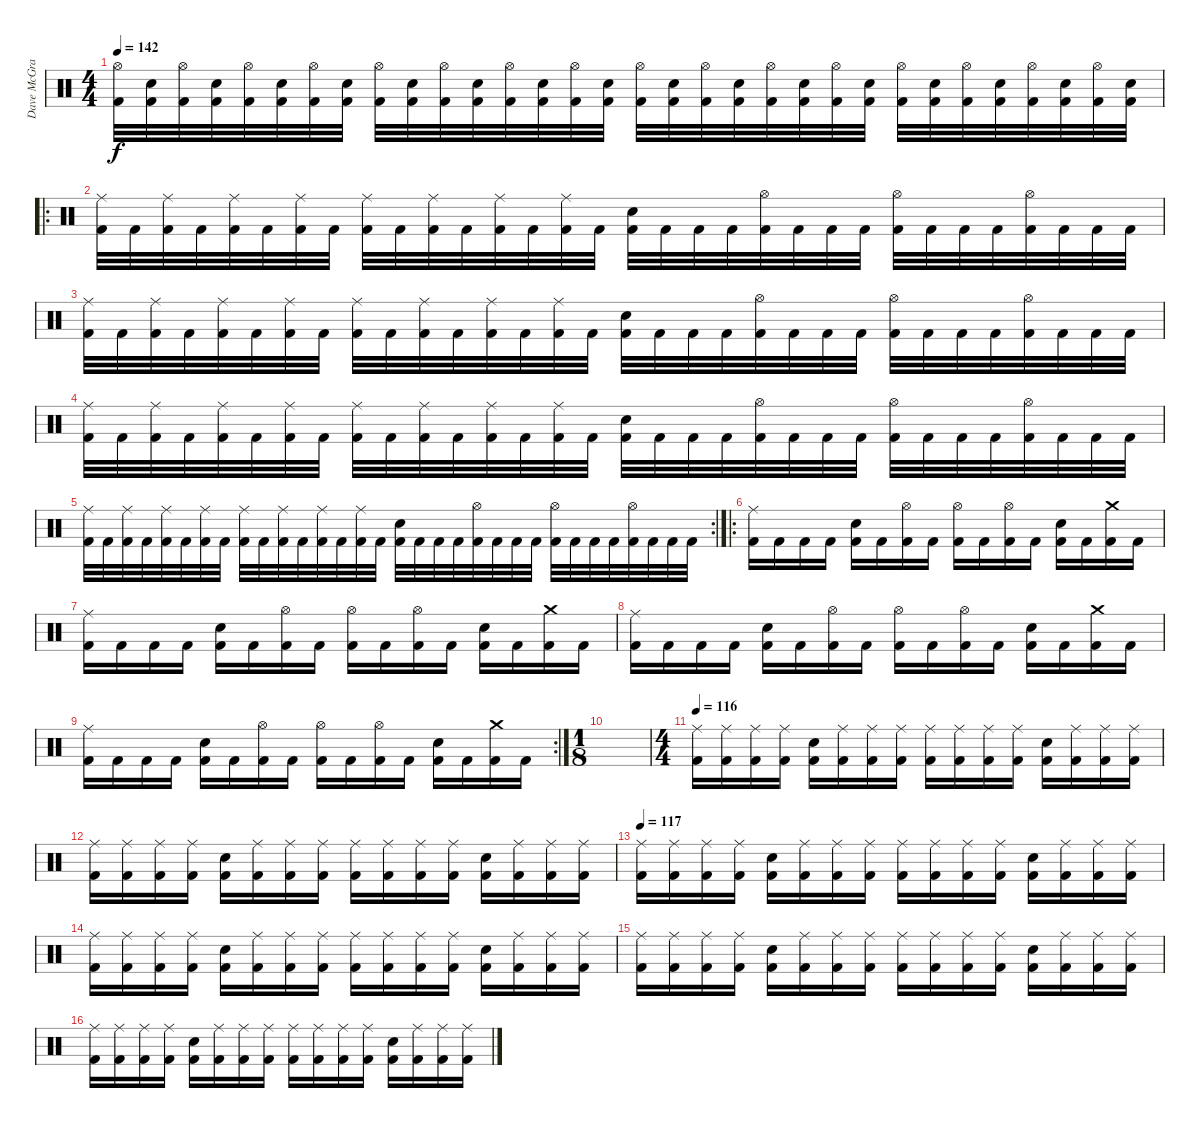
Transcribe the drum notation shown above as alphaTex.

\track ("Dave McGraw" "Dave McGra") {instrument percussion}
\staff {score}
\articulation defaults
\ts (4 4)
\tempo 142
\clef neutral
\ks c
("Hi-Hat (open)" "Kick (hit) 2").32{dy f} ("Electric Snare (hit)" "Kick (hit) 2").32 ("Hi-Hat (open)" "Kick (hit) 2").32 ("Electric Snare (hit)" "Kick (hit) 2").32 ("Hi-Hat (open)" "Kick (hit) 2").32 ("Electric Snare (hit)" "Kick (hit) 2").32 ("Hi-Hat (open)" "Kick (hit) 2").32 ("Electric Snare (hit)" "Kick (hit) 2").32 ("Hi-Hat (open)" "Kick (hit) 2").32 ("Electric Snare (hit)" "Kick (hit) 2").32 ("Hi-Hat (open)" "Kick (hit) 2").32 ("Electric Snare (hit)" "Kick (hit) 2").32 ("Hi-Hat (open)" "Kick (hit) 2").32 ("Electric Snare (hit)" "Kick (hit) 2").32 ("Hi-Hat (open)" "Kick (hit) 2").32 ("Electric Snare (hit)" "Kick (hit) 2").32 ("Hi-Hat (open)" "Kick (hit) 2").32 ("Electric Snare (hit)" "Kick (hit) 2").32 ("Hi-Hat (open)" "Kick (hit) 2").32 ("Electric Snare (hit)" "Kick (hit) 2").32 ("Hi-Hat (open)" "Kick (hit) 2").32 ("Electric Snare (hit)" "Kick (hit) 2").32 ("Hi-Hat (open)" "Kick (hit) 2").32 ("Electric Snare (hit)" "Kick (hit) 2").32 ("Hi-Hat (open)" "Kick (hit) 2").32 ("Electric Snare (hit)" "Kick (hit) 2").32 ("Hi-Hat (open)" "Kick (hit) 2").32 ("Electric Snare (hit)" "Kick (hit) 2").32 ("Hi-Hat (open)" "Kick (hit) 2").32 ("Electric Snare (hit)" "Kick (hit) 2").32 ("Hi-Hat (open)" "Kick (hit) 2").32 ("Electric Snare (hit)" "Kick (hit) 2").32 |
\ro
("Ride (middle)" "Kick (hit) 2").32 "Kick (hit) 2".32 ("Ride (middle)" "Kick (hit) 2").32 "Kick (hit) 2".32 ("Ride (middle)" "Kick (hit) 2").32 "Kick (hit) 2".32 ("Ride (middle)" "Kick (hit) 2").32 "Kick (hit) 2".32 ("Ride (middle)" "Kick (hit) 2").32 "Kick (hit) 2".32 ("Ride (middle)" "Kick (hit) 2").32 "Kick (hit) 2".32 ("Ride (middle)" "Kick (hit) 2").32 "Kick (hit) 2".32 ("Ride (middle)" "Kick (hit) 2").32 "Kick (hit) 2".32 ("Electric Snare (hit)" "Kick (hit) 2").32 "Kick (hit) 2".32 "Kick (hit) 2".32 "Kick (hit) 2".32 ("Hi-Hat (open)" "Kick (hit) 2").32 "Kick (hit) 2".32 "Kick (hit) 2".32 "Kick (hit) 2".32 ("Hi-Hat (open)" "Kick (hit) 2").32 "Kick (hit) 2".32 "Kick (hit) 2".32 "Kick (hit) 2".32 ("Hi-Hat (open)" "Kick (hit) 2").32 "Kick (hit) 2".32 "Kick (hit) 2".32 "Kick (hit) 2".32 |
("Ride (middle)" "Kick (hit) 2").32 "Kick (hit) 2".32 ("Ride (middle)" "Kick (hit) 2").32 "Kick (hit) 2".32 ("Ride (middle)" "Kick (hit) 2").32 "Kick (hit) 2".32 ("Ride (middle)" "Kick (hit) 2").32 "Kick (hit) 2".32 ("Ride (middle)" "Kick (hit) 2").32 "Kick (hit) 2".32 ("Ride (middle)" "Kick (hit) 2").32 "Kick (hit) 2".32 ("Ride (middle)" "Kick (hit) 2").32 "Kick (hit) 2".32 ("Ride (middle)" "Kick (hit) 2").32 "Kick (hit) 2".32 ("Electric Snare (hit)" "Kick (hit) 2").32 "Kick (hit) 2".32 "Kick (hit) 2".32 "Kick (hit) 2".32 ("Hi-Hat (open)" "Kick (hit) 2").32 "Kick (hit) 2".32 "Kick (hit) 2".32 "Kick (hit) 2".32 ("Hi-Hat (open)" "Kick (hit) 2").32 "Kick (hit) 2".32 "Kick (hit) 2".32 "Kick (hit) 2".32 ("Hi-Hat (open)" "Kick (hit) 2").32 "Kick (hit) 2".32 "Kick (hit) 2".32 "Kick (hit) 2".32 |
("Ride (middle)" "Kick (hit) 2").32 "Kick (hit) 2".32 ("Ride (middle)" "Kick (hit) 2").32 "Kick (hit) 2".32 ("Ride (middle)" "Kick (hit) 2").32 "Kick (hit) 2".32 ("Ride (middle)" "Kick (hit) 2").32 "Kick (hit) 2".32 ("Ride (middle)" "Kick (hit) 2").32 "Kick (hit) 2".32 ("Ride (middle)" "Kick (hit) 2").32 "Kick (hit) 2".32 ("Ride (middle)" "Kick (hit) 2").32 "Kick (hit) 2".32 ("Ride (middle)" "Kick (hit) 2").32 "Kick (hit) 2".32 ("Electric Snare (hit)" "Kick (hit) 2").32 "Kick (hit) 2".32 "Kick (hit) 2".32 "Kick (hit) 2".32 ("Hi-Hat (open)" "Kick (hit) 2").32 "Kick (hit) 2".32 "Kick (hit) 2".32 "Kick (hit) 2".32 ("Hi-Hat (open)" "Kick (hit) 2").32 "Kick (hit) 2".32 "Kick (hit) 2".32 "Kick (hit) 2".32 ("Hi-Hat (open)" "Kick (hit) 2").32 "Kick (hit) 2".32 "Kick (hit) 2".32 "Kick (hit) 2".32 |
\rc 2
("Ride (middle)" "Kick (hit) 2").32 "Kick (hit) 2".32 ("Ride (middle)" "Kick (hit) 2").32 "Kick (hit) 2".32 ("Ride (middle)" "Kick (hit) 2").32 "Kick (hit) 2".32 ("Ride (middle)" "Kick (hit) 2").32 "Kick (hit) 2".32 ("Ride (middle)" "Kick (hit) 2").32 "Kick (hit) 2".32 ("Ride (middle)" "Kick (hit) 2").32 "Kick (hit) 2".32 ("Ride (middle)" "Kick (hit) 2").32 "Kick (hit) 2".32 ("Ride (middle)" "Kick (hit) 2").32 "Kick (hit) 2".32 ("Electric Snare (hit)" "Kick (hit) 2").32 "Kick (hit) 2".32 "Kick (hit) 2".32 "Kick (hit) 2".32 ("Hi-Hat (open)" "Kick (hit) 2").32 "Kick (hit) 2".32 "Kick (hit) 2".32 "Kick (hit) 2".32 ("Hi-Hat (open)" "Kick (hit) 2").32 "Kick (hit) 2".32 "Kick (hit) 2".32 "Kick (hit) 2".32 ("Hi-Hat (open)" "Kick (hit) 2").32 "Kick (hit) 2".32 "Kick (hit) 2".32 "Kick (hit) 2".32 |
\ro
("Ride (middle)" "Kick (hit) 2").16 "Kick (hit) 2".16 "Kick (hit) 2".16 "Kick (hit) 2".16 ("Electric Snare (hit)" "Kick (hit) 2").16 "Kick (hit) 2".16 ("Hi-Hat (open)" "Kick (hit) 2").16 "Kick (hit) 2".16 ("Hi-Hat (open)" "Kick (hit) 2").16 "Kick (hit) 2".16 ("Hi-Hat (open)" "Kick (hit) 2").16 "Kick (hit) 2".16 ("Electric Snare (hit)" "Kick (hit) 2").16 "Kick (hit) 2".16 ("Crash medium (hit)" "Kick (hit) 2").16 "Kick (hit) 2".16 |
("Ride (middle)" "Kick (hit) 2").16 "Kick (hit) 2".16 "Kick (hit) 2".16 "Kick (hit) 2".16 ("Electric Snare (hit)" "Kick (hit) 2").16 "Kick (hit) 2".16 ("Hi-Hat (open)" "Kick (hit) 2").16 "Kick (hit) 2".16 ("Hi-Hat (open)" "Kick (hit) 2").16 "Kick (hit) 2".16 ("Hi-Hat (open)" "Kick (hit) 2").16 "Kick (hit) 2".16 ("Electric Snare (hit)" "Kick (hit) 2").16 "Kick (hit) 2".16 ("Crash medium (hit)" "Kick (hit) 2").16 "Kick (hit) 2".16 |
("Ride (middle)" "Kick (hit) 2").16 "Kick (hit) 2".16 "Kick (hit) 2".16 "Kick (hit) 2".16 ("Electric Snare (hit)" "Kick (hit) 2").16 "Kick (hit) 2".16 ("Hi-Hat (open)" "Kick (hit) 2").16 "Kick (hit) 2".16 ("Hi-Hat (open)" "Kick (hit) 2").16 "Kick (hit) 2".16 ("Hi-Hat (open)" "Kick (hit) 2").16 "Kick (hit) 2".16 ("Electric Snare (hit)" "Kick (hit) 2").16 "Kick (hit) 2".16 ("Crash medium (hit)" "Kick (hit) 2").16 "Kick (hit) 2".16 |
\rc 2
("Ride (middle)" "Kick (hit) 2").16 "Kick (hit) 2".16 "Kick (hit) 2".16 "Kick (hit) 2".16 ("Electric Snare (hit)" "Kick (hit) 2").16 "Kick (hit) 2".16 ("Hi-Hat (open)" "Kick (hit) 2").16 "Kick (hit) 2".16 ("Hi-Hat (open)" "Kick (hit) 2").16 "Kick (hit) 2".16 ("Hi-Hat (open)" "Kick (hit) 2").16 "Kick (hit) 2".16 ("Electric Snare (hit)" "Kick (hit) 2").16 "Kick (hit) 2".16 ("Crash medium (hit)" "Kick (hit) 2").16 "Kick (hit) 2".16 |
\ts (1 8)
|
\ts (4 4)
\tempo 116
("Ride (middle)" "Kick (hit) 2").16 ("Ride (middle)" "Kick (hit) 2").16 ("Ride (middle)" "Kick (hit) 2").16 ("Ride (middle)" "Kick (hit) 2").16 ("Electric Snare (hit)" "Kick (hit) 2").16 ("Ride (middle)" "Kick (hit) 2").16 ("Ride (middle)" "Kick (hit) 2").16 ("Ride (middle)" "Kick (hit) 2").16 ("Ride (middle)" "Kick (hit) 2").16 ("Ride (middle)" "Kick (hit) 2").16 ("Ride (middle)" "Kick (hit) 2").16 ("Ride (middle)" "Kick (hit) 2").16 ("Electric Snare (hit)" "Kick (hit) 2").16 ("Ride (middle)" "Kick (hit) 2").16 ("Ride (middle)" "Kick (hit) 2").16 ("Ride (middle)" "Kick (hit) 2").16 |
("Ride (middle)" "Kick (hit) 2").16 ("Ride (middle)" "Kick (hit) 2").16 ("Ride (middle)" "Kick (hit) 2").16 ("Ride (middle)" "Kick (hit) 2").16 ("Electric Snare (hit)" "Kick (hit) 2").16 ("Ride (middle)" "Kick (hit) 2").16 ("Ride (middle)" "Kick (hit) 2").16 ("Ride (middle)" "Kick (hit) 2").16 ("Ride (middle)" "Kick (hit) 2").16 ("Ride (middle)" "Kick (hit) 2").16 ("Ride (middle)" "Kick (hit) 2").16 ("Ride (middle)" "Kick (hit) 2").16 ("Electric Snare (hit)" "Kick (hit) 2").16 ("Ride (middle)" "Kick (hit) 2").16 ("Ride (middle)" "Kick (hit) 2").16 ("Ride (middle)" "Kick (hit) 2").16 |
\tempo 117
("Ride (middle)" "Kick (hit) 2").16 ("Ride (middle)" "Kick (hit) 2").16 ("Ride (middle)" "Kick (hit) 2").16 ("Ride (middle)" "Kick (hit) 2").16 ("Electric Snare (hit)" "Kick (hit) 2").16 ("Ride (middle)" "Kick (hit) 2").16 ("Ride (middle)" "Kick (hit) 2").16 ("Ride (middle)" "Kick (hit) 2").16 ("Ride (middle)" "Kick (hit) 2").16 ("Ride (middle)" "Kick (hit) 2").16 ("Ride (middle)" "Kick (hit) 2").16 ("Ride (middle)" "Kick (hit) 2").16 ("Electric Snare (hit)" "Kick (hit) 2").16 ("Ride (middle)" "Kick (hit) 2").16 ("Ride (middle)" "Kick (hit) 2").16 ("Ride (middle)" "Kick (hit) 2").16 |
("Ride (middle)" "Kick (hit) 2").16 ("Ride (middle)" "Kick (hit) 2").16 ("Ride (middle)" "Kick (hit) 2").16 ("Ride (middle)" "Kick (hit) 2").16 ("Electric Snare (hit)" "Kick (hit) 2").16 ("Ride (middle)" "Kick (hit) 2").16 ("Ride (middle)" "Kick (hit) 2").16 ("Ride (middle)" "Kick (hit) 2").16 ("Ride (middle)" "Kick (hit) 2").16 ("Ride (middle)" "Kick (hit) 2").16 ("Ride (middle)" "Kick (hit) 2").16 ("Ride (middle)" "Kick (hit) 2").16 ("Electric Snare (hit)" "Kick (hit) 2").16 ("Ride (middle)" "Kick (hit) 2").16 ("Ride (middle)" "Kick (hit) 2").16 ("Ride (middle)" "Kick (hit) 2").16 |
("Ride (middle)" "Kick (hit) 2").16 ("Ride (middle)" "Kick (hit) 2").16 ("Ride (middle)" "Kick (hit) 2").16 ("Ride (middle)" "Kick (hit) 2").16 ("Electric Snare (hit)" "Kick (hit) 2").16 ("Ride (middle)" "Kick (hit) 2").16 ("Ride (middle)" "Kick (hit) 2").16 ("Ride (middle)" "Kick (hit) 2").16 ("Ride (middle)" "Kick (hit) 2").16 ("Ride (middle)" "Kick (hit) 2").16 ("Ride (middle)" "Kick (hit) 2").16 ("Ride (middle)" "Kick (hit) 2").16 ("Electric Snare (hit)" "Kick (hit) 2").16 ("Ride (middle)" "Kick (hit) 2").16 ("Ride (middle)" "Kick (hit) 2").16 ("Ride (middle)" "Kick (hit) 2").16 |
("Ride (middle)" "Kick (hit) 2").16 ("Ride (middle)" "Kick (hit) 2").16 ("Ride (middle)" "Kick (hit) 2").16 ("Ride (middle)" "Kick (hit) 2").16 ("Electric Snare (hit)" "Kick (hit) 2").16 ("Ride (middle)" "Kick (hit) 2").16 ("Ride (middle)" "Kick (hit) 2").16 ("Ride (middle)" "Kick (hit) 2").16 ("Ride (middle)" "Kick (hit) 2").16 ("Ride (middle)" "Kick (hit) 2").16 ("Ride (middle)" "Kick (hit) 2").16 ("Ride (middle)" "Kick (hit) 2").16 ("Electric Snare (hit)" "Kick (hit) 2").16 ("Ride (middle)" "Kick (hit) 2").16 ("Ride (middle)" "Kick (hit) 2").16 ("Ride (middle)" "Kick (hit) 2").16
